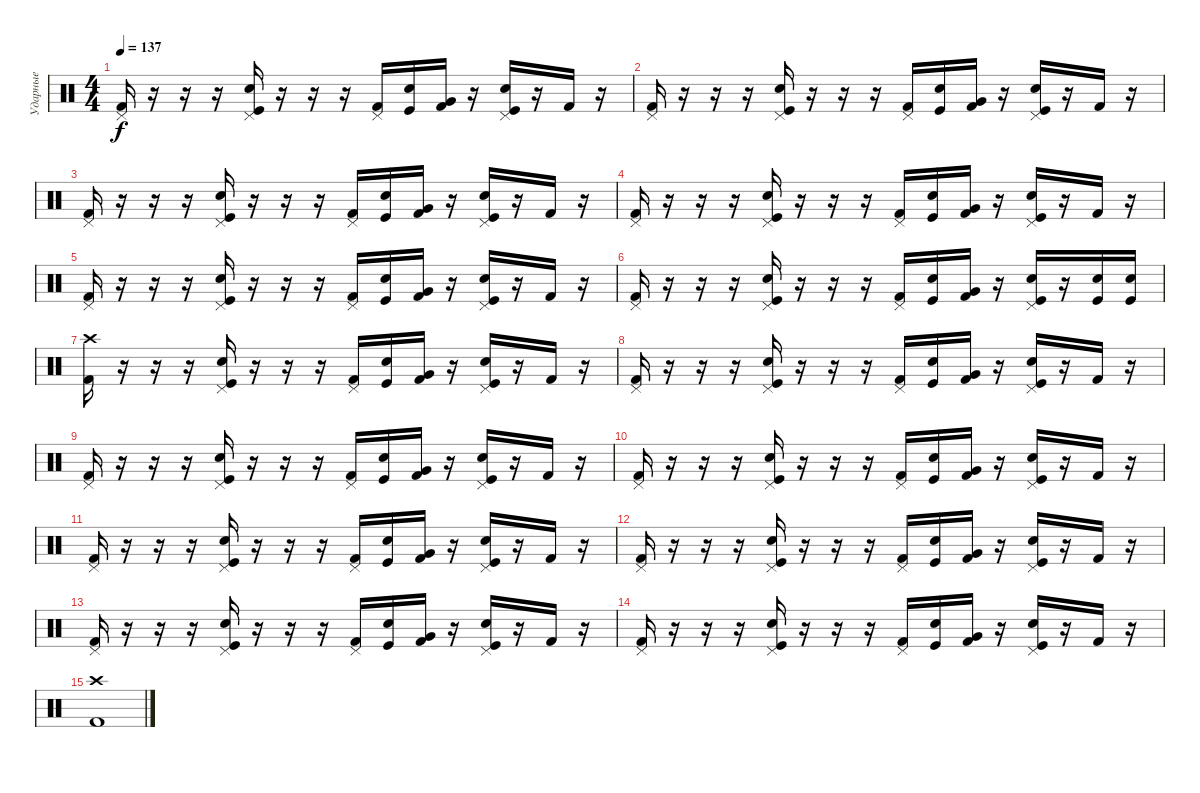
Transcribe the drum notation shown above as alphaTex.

\track ("Ударные" "Ударные") {instrument percussion}
\staff {score}
\articulation defaults
\ts (4 4)
\tempo 137
\clef neutral
\ks c
("Pedal Hi-Hat (hit)" "Kick (hit) 2").16{dy f} r.16 r.16 r.16 ("Pedal Hi-Hat (hit)" "Electric Snare (hit)" "Kick (hit)").16 r.16 r.16 r.16 ("Pedal Hi-Hat (hit)" "Kick (hit) 2").16 ("Electric Snare (hit)" "Kick (hit)").16 ("Very Low Tom (hit)" "Kick (hit) 2").16 r.16 ("Pedal Hi-Hat (hit)" "Electric Snare (hit)" "Kick (hit)").16 r.16 "Kick (hit) 2".16 r.16 |
("Pedal Hi-Hat (hit)" "Kick (hit) 2").16 r.16 r.16 r.16 ("Pedal Hi-Hat (hit)" "Electric Snare (hit)" "Kick (hit)").16 r.16 r.16 r.16 ("Pedal Hi-Hat (hit)" "Kick (hit) 2").16 ("Electric Snare (hit)" "Kick (hit)").16 ("Very Low Tom (hit)" "Kick (hit) 2").16 r.16 ("Pedal Hi-Hat (hit)" "Electric Snare (hit)" "Kick (hit)").16 r.16 "Kick (hit) 2".16 r.16 |
("Pedal Hi-Hat (hit)" "Kick (hit) 2").16 r.16 r.16 r.16 ("Pedal Hi-Hat (hit)" "Electric Snare (hit)" "Kick (hit)").16 r.16 r.16 r.16 ("Pedal Hi-Hat (hit)" "Kick (hit) 2").16 ("Electric Snare (hit)" "Kick (hit)").16 ("Very Low Tom (hit)" "Kick (hit) 2").16 r.16 ("Pedal Hi-Hat (hit)" "Electric Snare (hit)" "Kick (hit)").16 r.16 "Kick (hit) 2".16 r.16 |
("Pedal Hi-Hat (hit)" "Kick (hit) 2").16 r.16 r.16 r.16 ("Pedal Hi-Hat (hit)" "Electric Snare (hit)" "Kick (hit)").16 r.16 r.16 r.16 ("Pedal Hi-Hat (hit)" "Kick (hit) 2").16 ("Electric Snare (hit)" "Kick (hit)").16 ("Very Low Tom (hit)" "Kick (hit) 2").16 r.16 ("Pedal Hi-Hat (hit)" "Electric Snare (hit)" "Kick (hit)").16 r.16 "Kick (hit) 2".16 r.16 |
("Pedal Hi-Hat (hit)" "Kick (hit) 2").16 r.16 r.16 r.16 ("Pedal Hi-Hat (hit)" "Electric Snare (hit)" "Kick (hit)").16 r.16 r.16 r.16 ("Pedal Hi-Hat (hit)" "Kick (hit) 2").16 ("Electric Snare (hit)" "Kick (hit)").16 ("Very Low Tom (hit)" "Kick (hit) 2").16 r.16 ("Pedal Hi-Hat (hit)" "Electric Snare (hit)" "Kick (hit)").16 r.16 "Kick (hit) 2".16 r.16 |
("Pedal Hi-Hat (hit)" "Kick (hit) 2").16 r.16 r.16 r.16 ("Pedal Hi-Hat (hit)" "Electric Snare (hit)" "Kick (hit)").16 r.16 r.16 r.16 ("Pedal Hi-Hat (hit)" "Kick (hit) 2").16 ("Electric Snare (hit)" "Kick (hit)").16 ("Very Low Tom (hit)" "Kick (hit) 2").16 r.16 ("Pedal Hi-Hat (hit)" "Electric Snare (hit)" "Kick (hit)").16 r.16 ("Electric Snare (hit)" "Kick (hit)").16 ("Electric Snare (hit)" "Kick (hit)").16 |
("Crash high (hit)" "Kick (hit) 2").16 r.16 r.16 r.16 ("Pedal Hi-Hat (hit)" "Electric Snare (hit)" "Kick (hit)").16 r.16 r.16 r.16 ("Pedal Hi-Hat (hit)" "Kick (hit) 2").16 ("Electric Snare (hit)" "Kick (hit)").16 ("Very Low Tom (hit)" "Kick (hit) 2").16 r.16 ("Pedal Hi-Hat (hit)" "Electric Snare (hit)" "Kick (hit)").16 r.16 "Kick (hit) 2".16 r.16 |
("Pedal Hi-Hat (hit)" "Kick (hit) 2").16 r.16 r.16 r.16 ("Pedal Hi-Hat (hit)" "Electric Snare (hit)" "Kick (hit)").16 r.16 r.16 r.16 ("Pedal Hi-Hat (hit)" "Kick (hit) 2").16 ("Electric Snare (hit)" "Kick (hit)").16 ("Very Low Tom (hit)" "Kick (hit) 2").16 r.16 ("Pedal Hi-Hat (hit)" "Electric Snare (hit)" "Kick (hit)").16 r.16 "Kick (hit) 2".16 r.16 |
("Pedal Hi-Hat (hit)" "Kick (hit) 2").16 r.16 r.16 r.16 ("Pedal Hi-Hat (hit)" "Electric Snare (hit)" "Kick (hit)").16 r.16 r.16 r.16 ("Pedal Hi-Hat (hit)" "Kick (hit) 2").16 ("Electric Snare (hit)" "Kick (hit)").16 ("Very Low Tom (hit)" "Kick (hit) 2").16 r.16 ("Pedal Hi-Hat (hit)" "Electric Snare (hit)" "Kick (hit)").16 r.16 "Kick (hit) 2".16 r.16 |
("Pedal Hi-Hat (hit)" "Kick (hit) 2").16 r.16 r.16 r.16 ("Pedal Hi-Hat (hit)" "Electric Snare (hit)" "Kick (hit)").16 r.16 r.16 r.16 ("Pedal Hi-Hat (hit)" "Kick (hit) 2").16 ("Electric Snare (hit)" "Kick (hit)").16 ("Very Low Tom (hit)" "Kick (hit) 2").16 r.16 ("Pedal Hi-Hat (hit)" "Electric Snare (hit)" "Kick (hit)").16 r.16 "Kick (hit) 2".16 r.16 |
("Pedal Hi-Hat (hit)" "Kick (hit) 2").16 r.16 r.16 r.16 ("Pedal Hi-Hat (hit)" "Electric Snare (hit)" "Kick (hit)").16 r.16 r.16 r.16 ("Pedal Hi-Hat (hit)" "Kick (hit) 2").16 ("Electric Snare (hit)" "Kick (hit)").16 ("Very Low Tom (hit)" "Kick (hit) 2").16 r.16 ("Pedal Hi-Hat (hit)" "Electric Snare (hit)" "Kick (hit)").16 r.16 "Kick (hit) 2".16 r.16 |
("Pedal Hi-Hat (hit)" "Kick (hit) 2").16 r.16 r.16 r.16 ("Pedal Hi-Hat (hit)" "Electric Snare (hit)" "Kick (hit)").16 r.16 r.16 r.16 ("Pedal Hi-Hat (hit)" "Kick (hit) 2").16 ("Electric Snare (hit)" "Kick (hit)").16 ("Very Low Tom (hit)" "Kick (hit) 2").16 r.16 ("Pedal Hi-Hat (hit)" "Electric Snare (hit)" "Kick (hit)").16 r.16 "Kick (hit) 2".16 r.16 |
("Pedal Hi-Hat (hit)" "Kick (hit) 2").16 r.16 r.16 r.16 ("Pedal Hi-Hat (hit)" "Electric Snare (hit)" "Kick (hit)").16 r.16 r.16 r.16 ("Pedal Hi-Hat (hit)" "Kick (hit) 2").16 ("Electric Snare (hit)" "Kick (hit)").16 ("Very Low Tom (hit)" "Kick (hit) 2").16 r.16 ("Pedal Hi-Hat (hit)" "Electric Snare (hit)" "Kick (hit)").16 r.16 "Kick (hit) 2".16 r.16 |
("Pedal Hi-Hat (hit)" "Kick (hit) 2").16 r.16 r.16 r.16 ("Pedal Hi-Hat (hit)" "Electric Snare (hit)" "Kick (hit)").16 r.16 r.16 r.16 ("Pedal Hi-Hat (hit)" "Kick (hit) 2").16 ("Electric Snare (hit)" "Kick (hit)").16 ("Very Low Tom (hit)" "Kick (hit) 2").16 r.16 ("Pedal Hi-Hat (hit)" "Electric Snare (hit)" "Kick (hit)").16 r.16 "Kick (hit) 2".16 r.16 |
("Crash high (hit)" "Kick (hit) 2").1
